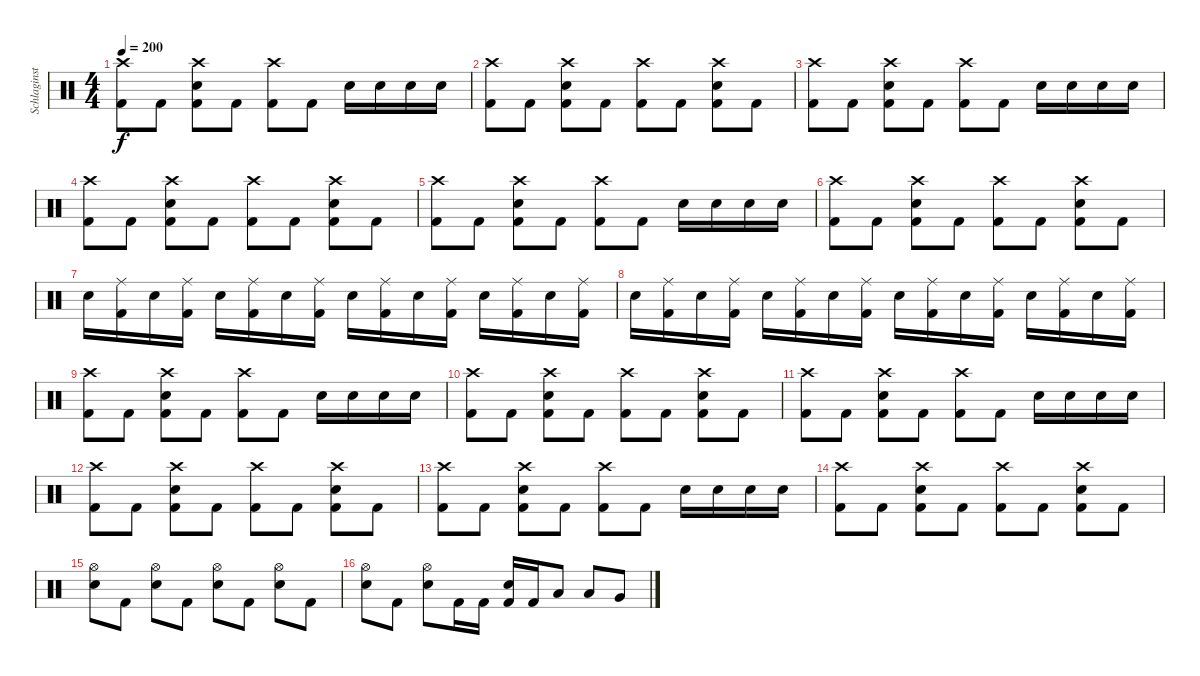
\track ("Schlaginstrumente - Auswahl" "Schlaginst") {instrument percussion}
\staff {score}
\articulation defaults
\ts (4 4)
\tempo 200
\clef neutral
\ks c
("Crash high (hit)" "Kick (hit) 2").8{dy f} "Kick (hit) 2".8 ("Snare (hit) 2" "Crash high (hit)" "Kick (hit) 2").8 "Kick (hit) 2".8 ("Crash high (hit)" "Kick (hit) 2").8 "Kick (hit) 2".8 "Snare (hit) 2".16 "Snare (hit) 2".16 "Snare (hit) 2".16 "Snare (hit) 2".16 |
("Crash high (hit)" "Kick (hit) 2").8 "Kick (hit) 2".8 ("Snare (hit) 2" "Crash high (hit)" "Kick (hit) 2").8 "Kick (hit) 2".8 ("Crash high (hit)" "Kick (hit) 2").8 "Kick (hit) 2".8 ("Snare (hit) 2" "Crash high (hit)" "Kick (hit) 2").8 "Kick (hit) 2".8 |
("Crash high (hit)" "Kick (hit) 2").8 "Kick (hit) 2".8 ("Snare (hit) 2" "Crash high (hit)" "Kick (hit) 2").8 "Kick (hit) 2".8 ("Crash high (hit)" "Kick (hit) 2").8 "Kick (hit) 2".8 "Snare (hit) 2".16 "Snare (hit) 2".16 "Snare (hit) 2".16 "Snare (hit) 2".16 |
("Crash high (hit)" "Kick (hit) 2").8 "Kick (hit) 2".8 ("Snare (hit) 2" "Crash high (hit)" "Kick (hit) 2").8 "Kick (hit) 2".8 ("Crash high (hit)" "Kick (hit) 2").8 "Kick (hit) 2".8 ("Snare (hit) 2" "Crash high (hit)" "Kick (hit) 2").8 "Kick (hit) 2".8 |
("Crash high (hit)" "Kick (hit) 2").8 "Kick (hit) 2".8 ("Snare (hit) 2" "Crash high (hit)" "Kick (hit) 2").8 "Kick (hit) 2".8 ("Crash high (hit)" "Kick (hit) 2").8 "Kick (hit) 2".8 "Snare (hit) 2".16 "Snare (hit) 2".16 "Snare (hit) 2".16 "Snare (hit) 2".16 |
("Crash high (hit)" "Kick (hit) 2").8 "Kick (hit) 2".8 ("Snare (hit) 2" "Crash high (hit)" "Kick (hit) 2").8 "Kick (hit) 2".8 ("Crash high (hit)" "Kick (hit) 2").8 "Kick (hit) 2".8 ("Snare (hit) 2" "Crash high (hit)" "Kick (hit) 2").8 "Kick (hit) 2".8 |
"Snare (hit) 2".16 ("Ride (middle)" "Kick (hit) 2").16 "Snare (hit) 2".16 ("Ride (middle)" "Kick (hit) 2").16 "Snare (hit) 2".16 ("Ride (middle)" "Kick (hit) 2").16 "Snare (hit) 2".16 ("Ride (middle)" "Kick (hit) 2").16 "Snare (hit) 2".16 ("Ride (middle)" "Kick (hit) 2").16 "Snare (hit) 2".16 ("Ride (middle)" "Kick (hit) 2").16 "Snare (hit) 2".16 ("Ride (middle)" "Kick (hit) 2").16 "Snare (hit) 2".16 ("Ride (middle)" "Kick (hit) 2").16 |
"Snare (hit) 2".16 ("Ride (middle)" "Kick (hit) 2").16 "Snare (hit) 2".16 ("Ride (middle)" "Kick (hit) 2").16 "Snare (hit) 2".16 ("Ride (middle)" "Kick (hit) 2").16 "Snare (hit) 2".16 ("Ride (middle)" "Kick (hit) 2").16 "Snare (hit) 2".16 ("Ride (middle)" "Kick (hit) 2").16 "Snare (hit) 2".16 ("Ride (middle)" "Kick (hit) 2").16 "Snare (hit) 2".16 ("Ride (middle)" "Kick (hit) 2").16 "Snare (hit) 2".16 ("Ride (middle)" "Kick (hit) 2").16 |
("Crash high (hit)" "Kick (hit) 2").8 "Kick (hit) 2".8 ("Snare (hit) 2" "Crash high (hit)" "Kick (hit) 2").8 "Kick (hit) 2".8 ("Crash high (hit)" "Kick (hit) 2").8 "Kick (hit) 2".8 "Snare (hit) 2".16 "Snare (hit) 2".16 "Snare (hit) 2".16 "Snare (hit) 2".16 |
("Crash high (hit)" "Kick (hit) 2").8 "Kick (hit) 2".8 ("Snare (hit) 2" "Crash high (hit)" "Kick (hit) 2").8 "Kick (hit) 2".8 ("Crash high (hit)" "Kick (hit) 2").8 "Kick (hit) 2".8 ("Snare (hit) 2" "Crash high (hit)" "Kick (hit) 2").8 "Kick (hit) 2".8 |
("Crash high (hit)" "Kick (hit) 2").8 "Kick (hit) 2".8 ("Snare (hit) 2" "Crash high (hit)" "Kick (hit) 2").8 "Kick (hit) 2".8 ("Crash high (hit)" "Kick (hit) 2").8 "Kick (hit) 2".8 "Snare (hit) 2".16 "Snare (hit) 2".16 "Snare (hit) 2".16 "Snare (hit) 2".16 |
("Crash high (hit)" "Kick (hit) 2").8 "Kick (hit) 2".8 ("Snare (hit) 2" "Crash high (hit)" "Kick (hit) 2").8 "Kick (hit) 2".8 ("Crash high (hit)" "Kick (hit) 2").8 "Kick (hit) 2".8 ("Snare (hit) 2" "Crash high (hit)" "Kick (hit) 2").8 "Kick (hit) 2".8 |
("Crash high (hit)" "Kick (hit) 2").8 "Kick (hit) 2".8 ("Snare (hit) 2" "Crash high (hit)" "Kick (hit) 2").8 "Kick (hit) 2".8 ("Crash high (hit)" "Kick (hit) 2").8 "Kick (hit) 2".8 "Snare (hit) 2".16 "Snare (hit) 2".16 "Snare (hit) 2".16 "Snare (hit) 2".16 |
("Crash high (hit)" "Kick (hit) 2").8 "Kick (hit) 2".8 ("Snare (hit) 2" "Crash high (hit)" "Kick (hit) 2").8 "Kick (hit) 2".8 ("Crash high (hit)" "Kick (hit) 2").8 "Kick (hit) 2".8 ("Snare (hit) 2" "Crash high (hit)" "Kick (hit) 2").8 "Kick (hit) 2".8 |
("Snare (hit) 2" "Hi-Hat (open)").8 "Kick (hit) 2".8 ("Snare (hit) 2" "Hi-Hat (open)").8 "Kick (hit) 2".8 ("Snare (hit) 2" "Hi-Hat (open)").8 "Kick (hit) 2".8 ("Snare (hit) 2" "Hi-Hat (open)").8 "Kick (hit) 2".8 |
("Snare (hit) 2" "Hi-Hat (open)").8 "Kick (hit) 2".8 ("Snare (hit) 2" "Hi-Hat (open)").8 "Kick (hit) 2".16 "Kick (hit) 2".16 ("Snare (hit) 2" "Kick (hit) 2").16 "Kick (hit) 2".16 "Low Tom (hit)".8 "Low Tom (hit)".8 "Very Low Tom (hit)".8
